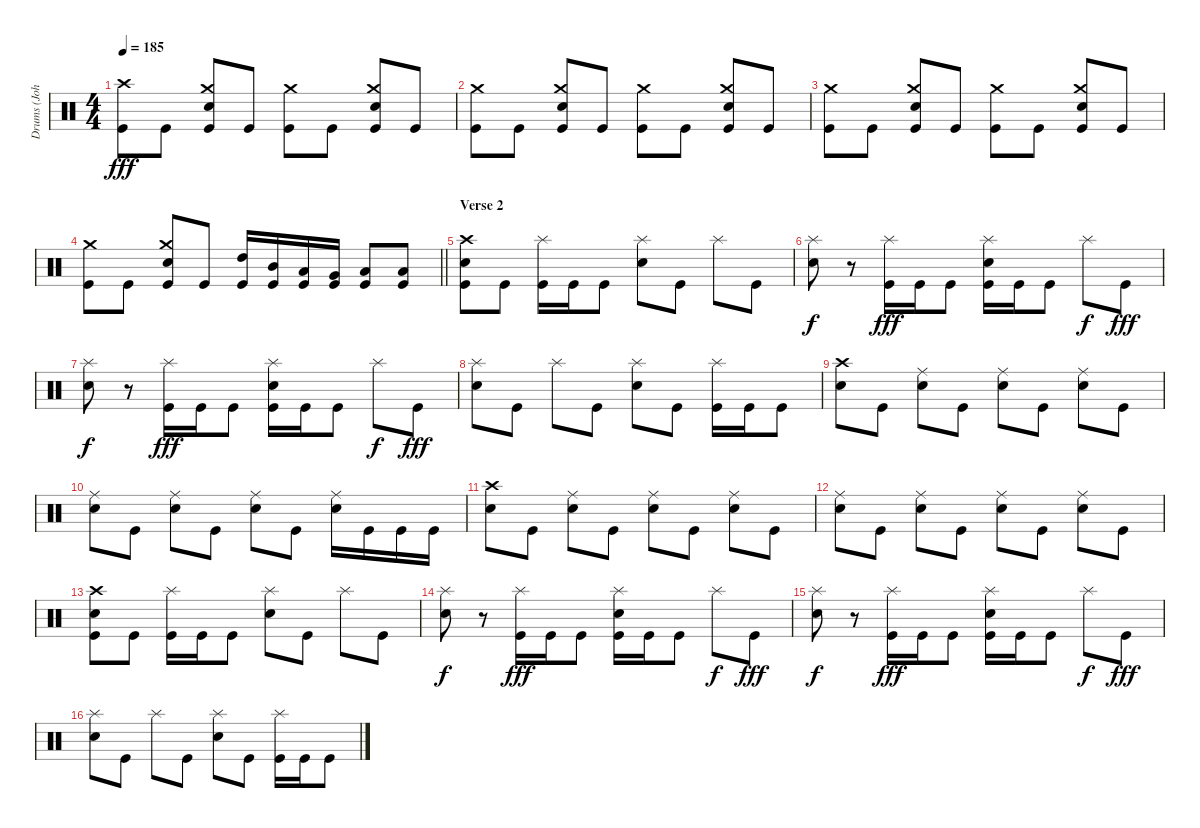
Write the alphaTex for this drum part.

\track ("Drums (John Bengtsson)" "Drums (Joh") {instrument percussion}
\staff {score}
\articulation defaults
\ts (4 4)
\tempo 185
\clef neutral
\ks c
("Crash high (hit)" "Kick (hit)").8{dy fff} "Kick (hit)".8 ("Crash medium (hit)" "Electric Snare (hit)" "Kick (hit)").8 "Kick (hit)".8 ("Crash medium (hit)" "Kick (hit)").8 "Kick (hit)".8 ("Crash medium (hit)" "Electric Snare (hit)" "Kick (hit)").8 "Kick (hit)".8 |
("Crash medium (hit)" "Kick (hit)").8 "Kick (hit)".8 ("Crash medium (hit)" "Electric Snare (hit)" "Kick (hit)").8 "Kick (hit)".8 ("Crash medium (hit)" "Kick (hit)").8 "Kick (hit)".8 ("Crash medium (hit)" "Electric Snare (hit)" "Kick (hit)").8 "Kick (hit)".8 |
("Crash medium (hit)" "Kick (hit)").8 "Kick (hit)".8 ("Crash medium (hit)" "Electric Snare (hit)" "Kick (hit)").8 "Kick (hit)".8 ("Crash medium (hit)" "Kick (hit)").8 "Kick (hit)".8 ("Crash medium (hit)" "Electric Snare (hit)" "Kick (hit)").8 "Kick (hit)".8 |
\barLineRight lightlight
("Crash medium (hit)" "Kick (hit)").8 "Kick (hit)".8 ("Crash medium (hit)" "Electric Snare (hit)" "Kick (hit)").8 "Kick (hit)".8 ("High Tom (hit)" "Kick (hit)").16 ("Mid Tom (hit)" "Kick (hit)").16 ("Low Tom (hit)" "Kick (hit)").16 ("Very Low Tom (hit)" "Kick (hit)").16 ("Low Floor Tom (hit)" "Kick (hit)").8 ("Low Floor Tom (hit)" "Kick (hit)").8 |
\section ("" "Verse 2")
("Crash high (hit)" "Electric Snare (hit)" "Kick (hit)").8 "Kick (hit)".8 ("Splash (hit)" "Kick (hit)").16 "Kick (hit)".16 "Kick (hit)".8 ("Splash (hit)" "Electric Snare (hit)").8 "Kick (hit)".8 "Splash (hit)".8 "Kick (hit)".8 |
("Splash (hit)" "Electric Snare (hit)").8{dy f} r.8 ("Splash (hit)" "Kick (hit)").16{dy fff} "Kick (hit)".16 "Kick (hit)".8 ("Splash (hit)" "Electric Snare (hit)" "Kick (hit)").16 "Kick (hit)".16 "Kick (hit)".8 "Splash (hit)".8{dy f} "Kick (hit)".8{dy fff} |
("Splash (hit)" "Electric Snare (hit)").8{dy f} r.8 ("Splash (hit)" "Kick (hit)").16{dy fff} "Kick (hit)".16 "Kick (hit)".8 ("Splash (hit)" "Electric Snare (hit)" "Kick (hit)").16 "Kick (hit)".16 "Kick (hit)".8 "Splash (hit)".8{dy f} "Kick (hit)".8{dy fff} |
("Splash (hit)" "Electric Snare (hit)").8 "Kick (hit)".8 "Splash (hit)".8 "Kick (hit)".8 ("Splash (hit)" "Electric Snare (hit)").8 "Kick (hit)".8 ("Splash (hit)" "Kick (hit)").16 "Kick (hit)".16 "Kick (hit)".8 |
("Crash high (hit)" "Electric Snare (hit)").8 "Kick (hit)".8 ("Ride (middle)" "Electric Snare (hit)").8 "Kick (hit)".8 ("Ride (middle)" "Electric Snare (hit)").8 "Kick (hit)".8 ("Ride (middle)" "Electric Snare (hit)").8 "Kick (hit)".8 |
("Ride (middle)" "Electric Snare (hit)").8 "Kick (hit)".8 ("Ride (middle)" "Electric Snare (hit)").8 "Kick (hit)".8 ("Ride (middle)" "Electric Snare (hit)").8 "Kick (hit)".8 ("Ride (middle)" "Electric Snare (hit)").16 "Kick (hit)".16 "Kick (hit)".16 "Kick (hit)".16 |
("Crash high (hit)" "Electric Snare (hit)").8 "Kick (hit)".8 ("Ride (middle)" "Electric Snare (hit)").8 "Kick (hit)".8 ("Ride (middle)" "Electric Snare (hit)").8 "Kick (hit)".8 ("Ride (middle)" "Electric Snare (hit)").8 "Kick (hit)".8 |
("Ride (middle)" "Electric Snare (hit)").8 "Kick (hit)".8 ("Ride (middle)" "Electric Snare (hit)").8 "Kick (hit)".8 ("Ride (middle)" "Electric Snare (hit)").8 "Kick (hit)".8 ("Ride (middle)" "Electric Snare (hit)").8 "Kick (hit)".8 |
("Crash high (hit)" "Electric Snare (hit)" "Kick (hit)").8 "Kick (hit)".8 ("Splash (hit)" "Kick (hit)").16 "Kick (hit)".16 "Kick (hit)".8 ("Splash (hit)" "Electric Snare (hit)").8 "Kick (hit)".8 "Splash (hit)".8 "Kick (hit)".8 |
("Splash (hit)" "Electric Snare (hit)").8{dy f} r.8 ("Splash (hit)" "Kick (hit)").16{dy fff} "Kick (hit)".16 "Kick (hit)".8 ("Splash (hit)" "Electric Snare (hit)" "Kick (hit)").16 "Kick (hit)".16 "Kick (hit)".8 "Splash (hit)".8{dy f} "Kick (hit)".8{dy fff} |
("Splash (hit)" "Electric Snare (hit)").8{dy f} r.8 ("Splash (hit)" "Kick (hit)").16{dy fff} "Kick (hit)".16 "Kick (hit)".8 ("Splash (hit)" "Electric Snare (hit)" "Kick (hit)").16 "Kick (hit)".16 "Kick (hit)".8 "Splash (hit)".8{dy f} "Kick (hit)".8{dy fff} |
("Splash (hit)" "Electric Snare (hit)").8 "Kick (hit)".8 "Splash (hit)".8 "Kick (hit)".8 ("Splash (hit)" "Electric Snare (hit)").8 "Kick (hit)".8 ("Splash (hit)" "Kick (hit)").16 "Kick (hit)".16 "Kick (hit)".8
